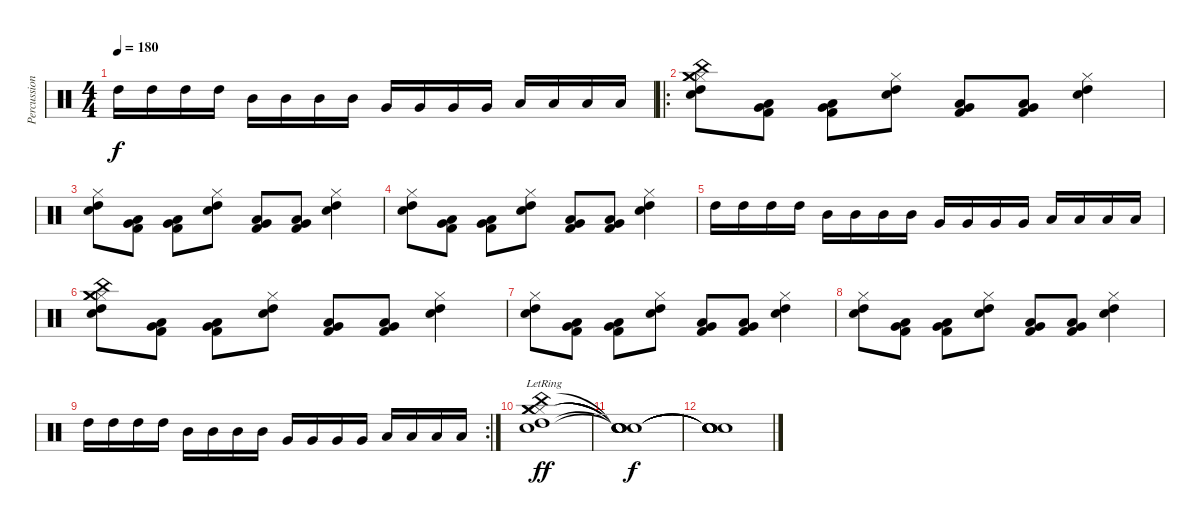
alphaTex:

\track ("Percussion" "Percussion") {instrument percussion}
\staff {score}
\articulation defaults
\ts (4 4)
\tempo 180
\clef neutral
\ks c "High Tom (hit)".16{dy f} "High Tom (hit)".16 "High Tom (hit)".16 "High Tom (hit)".16 "Mid Tom (hit)".16 "Mid Tom (hit)".16 "Mid Tom (hit)".16 "Mid Tom (hit)".16 "Very Low Tom (hit)".16 "Very Low Tom (hit)".16 "Very Low Tom (hit)".16 "Very Low Tom (hit)".16 "Low Floor Tom (hit)".16 "Low Floor Tom (hit)".16 "Low Floor Tom (hit)".16 "Low Floor Tom (hit)".16
|
\ro
("High Tom (hit)" "Snare (hit) 2" "Hi-Hat (closed)" "China (hit)" "Crash medium (hit)" "Crash medium (hit)").8 ("Kick (hit) 2" "Very Low Tom (hit)" "Low Tom (hit)").8 ("Kick (hit) 2" "Very Low Tom (hit)" "Low Tom (hit)").8 ("High Tom (hit)" "Snare (hit) 2" "Hi-Hat (closed)").8 ("Kick (hit) 2" "Very Low Tom (hit)" "Low Tom (hit)").8 ("Kick (hit) 2" "Very Low Tom (hit)" "Low Tom (hit)").8 ("High Tom (hit)" "Snare (hit) 2" "Hi-Hat (closed)").4 |
("High Tom (hit)" "Snare (hit) 2" "Hi-Hat (closed)").8 ("Kick (hit) 2" "Very Low Tom (hit)" "Low Tom (hit)").8 ("Kick (hit) 2" "Very Low Tom (hit)" "Low Tom (hit)").8 ("High Tom (hit)" "Snare (hit) 2" "Hi-Hat (closed)").8 ("Kick (hit) 2" "Very Low Tom (hit)" "Low Tom (hit)").8 ("Kick (hit) 2" "Very Low Tom (hit)" "Low Tom (hit)").8 ("High Tom (hit)" "Snare (hit) 2" "Hi-Hat (closed)").4 |
("High Tom (hit)" "Snare (hit) 2" "Hi-Hat (closed)").8 ("Kick (hit) 2" "Very Low Tom (hit)" "Low Tom (hit)").8 ("Kick (hit) 2" "Very Low Tom (hit)" "Low Tom (hit)").8 ("High Tom (hit)" "Snare (hit) 2" "Hi-Hat (closed)").8 ("Kick (hit) 2" "Very Low Tom (hit)" "Low Tom (hit)").8 ("Kick (hit) 2" "Very Low Tom (hit)" "Low Tom (hit)").8 ("High Tom (hit)" "Snare (hit) 2" "Hi-Hat (closed)").4 |
"High Tom (hit)".16 "High Tom (hit)".16 "High Tom (hit)".16 "High Tom (hit)".16 "Mid Tom (hit)".16 "Mid Tom (hit)".16 "Mid Tom (hit)".16 "Mid Tom (hit)".16 "Very Low Tom (hit)".16 "Very Low Tom (hit)".16 "Very Low Tom (hit)".16 "Very Low Tom (hit)".16 "Low Floor Tom (hit)".16 "Low Floor Tom (hit)".16 "Low Floor Tom (hit)".16 "Low Floor Tom (hit)".16 |
("High Tom (hit)" "Snare (hit) 2" "Hi-Hat (closed)" "China (hit)" "Crash medium (hit)" "Crash medium (hit)").8 ("Kick (hit) 2" "Very Low Tom (hit)" "Low Tom (hit)").8 ("Kick (hit) 2" "Very Low Tom (hit)" "Low Tom (hit)").8 ("High Tom (hit)" "Snare (hit) 2" "Hi-Hat (closed)").8 ("Kick (hit) 2" "Very Low Tom (hit)" "Low Tom (hit)").8 ("Kick (hit) 2" "Very Low Tom (hit)" "Low Tom (hit)").8 ("High Tom (hit)" "Snare (hit) 2" "Hi-Hat (closed)").4 |
("High Tom (hit)" "Snare (hit) 2" "Hi-Hat (closed)").8 ("Kick (hit) 2" "Very Low Tom (hit)" "Low Tom (hit)").8 ("Kick (hit) 2" "Very Low Tom (hit)" "Low Tom (hit)").8 ("High Tom (hit)" "Snare (hit) 2" "Hi-Hat (closed)").8 ("Kick (hit) 2" "Very Low Tom (hit)" "Low Tom (hit)").8 ("Kick (hit) 2" "Very Low Tom (hit)" "Low Tom (hit)").8 ("High Tom (hit)" "Snare (hit) 2" "Hi-Hat (closed)").4 |
("High Tom (hit)" "Snare (hit) 2" "Hi-Hat (closed)").8 ("Kick (hit) 2" "Very Low Tom (hit)" "Low Tom (hit)").8 ("Kick (hit) 2" "Very Low Tom (hit)" "Low Tom (hit)").8 ("High Tom (hit)" "Snare (hit) 2" "Hi-Hat (closed)").8 ("Kick (hit) 2" "Very Low Tom (hit)" "Low Tom (hit)").8 ("Kick (hit) 2" "Very Low Tom (hit)" "Low Tom (hit)").8 ("High Tom (hit)" "Snare (hit) 2" "Hi-Hat (closed)").4 |
\rc 2 "High Tom (hit)".16 "High Tom (hit)".16 "High Tom (hit)".16 "High Tom (hit)".16 "Mid Tom (hit)".16 "Mid Tom (hit)".16 "Mid Tom (hit)".16 "Mid Tom (hit)".16 "Very Low Tom (hit)".16 "Very Low Tom (hit)".16 "Very Low Tom (hit)".16 "Very Low Tom (hit)".16 "Low Floor Tom (hit)".16 "Low Floor Tom (hit)".16 "Low Floor Tom (hit)".16 "Low Floor Tom (hit)".16
|
("High Tom (hit)"{lr} "Snare (hit) 2"{lr} "Hi-Hat (closed)"{lr} "China (hit)"{lr} "Crash medium (hit)"{lr} "Crash medium (hit)"{lr}).1{dy ff} |
("Snare (hit)"{t} "Snare (hit)"{t} "Snare (hit)"{t} "Snare (hit)"{t} "Snare (hit)"{t} "Snare (hit)"{t}).1{dy f} |
("Snare (hit)"{t} "Snare (hit)"{t} "Snare (hit)"{t} "Snare (hit)"{t} "Snare (hit)"{t} "Snare (hit)"{t}).1
